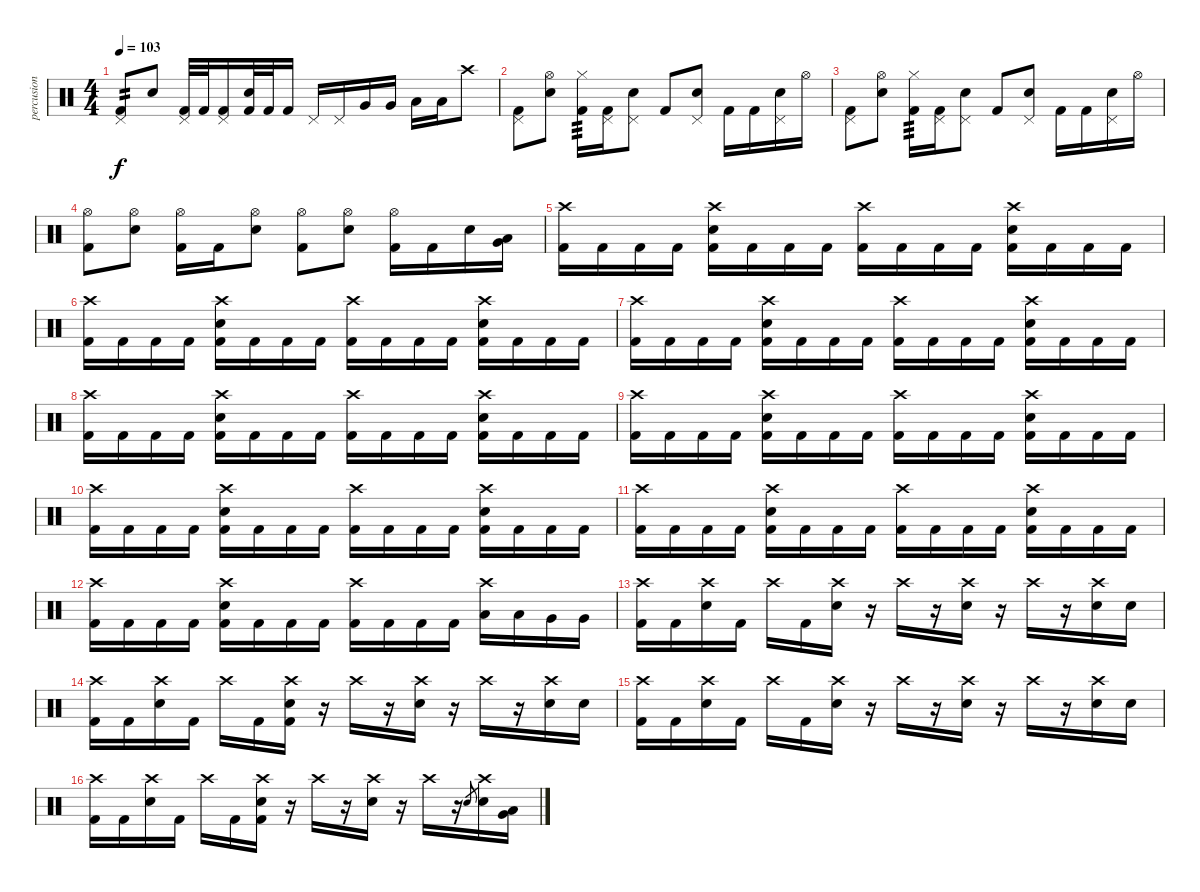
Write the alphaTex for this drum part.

\track ("percusion" "percusion") {instrument percussion}
\staff {score}
\articulation defaults
\ts (4 4)
\tempo 103
\clef neutral
\ks c
("Pedal Hi-Hat (hit)" "Kick (hit) 2").8{tp 2 dy f} "Electric Snare (hit)".8 ("Pedal Hi-Hat (hit)" "Kick (hit) 2").32 "Kick (hit) 2".32 ("Pedal Hi-Hat (hit)" "Kick (hit) 2").16 ("Electric Snare (hit)" "Kick (hit) 2").32 "Kick (hit) 2".32 "Kick (hit) 2".16 "Pedal Hi-Hat (hit)".16 "Pedal Hi-Hat (hit)".16 "Very Low Tom (hit)".16 "Very Low Tom (hit)".16 "Low Tom (hit)".16 "Low Tom (hit)".16 "Crash high (hit)".8 |
("Pedal Hi-Hat (hit)" "Kick (hit) 2").8 ("Hi-Hat (open)" "Electric Snare (hit)").8 ("Hi-Hat (closed)" "Kick (hit) 2").16{tp 3} ("Pedal Hi-Hat (hit)" "Kick (hit) 2").16 ("Pedal Hi-Hat (hit)" "Electric Snare (hit)").8 "Kick (hit) 2".8 ("Pedal Hi-Hat (hit)" "Electric Snare (hit)").8 "Kick (hit) 2".16 "Kick (hit) 2".16 ("Pedal Hi-Hat (hit)" "Electric Snare (hit)").16 "Hi-Hat (open)".16 |
("Pedal Hi-Hat (hit)" "Kick (hit) 2").8 ("Hi-Hat (open)" "Electric Snare (hit)").8 ("Hi-Hat (closed)" "Kick (hit) 2").16{tp 3} ("Pedal Hi-Hat (hit)" "Kick (hit) 2").16 ("Pedal Hi-Hat (hit)" "Electric Snare (hit)").8 "Kick (hit) 2".8 ("Pedal Hi-Hat (hit)" "Electric Snare (hit)").8 "Kick (hit) 2".16 "Kick (hit) 2".16 ("Pedal Hi-Hat (hit)" "Electric Snare (hit)").16 "Hi-Hat (open)".16 |
("Hi-Hat (open)" "Kick (hit) 2").8 ("Hi-Hat (open)" "Electric Snare (hit)").8 ("Hi-Hat (open)" "Kick (hit) 2").16 "Kick (hit) 2".16 ("Hi-Hat (open)" "Electric Snare (hit)").8 ("Hi-Hat (open)" "Kick (hit) 2").8 ("Hi-Hat (open)" "Electric Snare (hit)").8 ("Hi-Hat (open)" "Kick (hit) 2").16 "Kick (hit) 2".16 "Electric Snare (hit)".16 ("Very Low Tom (hit)" "Low Floor Tom (hit)").16 |
("Crash high (hit)" "Kick (hit) 2").16 "Kick (hit) 2".16 "Kick (hit) 2".16 "Kick (hit) 2".16 ("Crash high (hit)" "Electric Snare (hit)" "Kick (hit) 2").16 "Kick (hit) 2".16 "Kick (hit) 2".16 "Kick (hit) 2".16 ("Crash high (hit)" "Kick (hit) 2").16 "Kick (hit) 2".16 "Kick (hit) 2".16 "Kick (hit) 2".16 ("Crash high (hit)" "Electric Snare (hit)" "Kick (hit) 2").16 "Kick (hit) 2".16 "Kick (hit) 2".16 "Kick (hit) 2".16 |
("Crash high (hit)" "Kick (hit) 2").16 "Kick (hit) 2".16 "Kick (hit) 2".16 "Kick (hit) 2".16 ("Crash high (hit)" "Electric Snare (hit)" "Kick (hit) 2").16 "Kick (hit) 2".16 "Kick (hit) 2".16 "Kick (hit) 2".16 ("Crash high (hit)" "Kick (hit) 2").16 "Kick (hit) 2".16 "Kick (hit) 2".16 "Kick (hit) 2".16 ("Crash high (hit)" "Electric Snare (hit)" "Kick (hit) 2").16 "Kick (hit) 2".16 "Kick (hit) 2".16 "Kick (hit) 2".16 |
("Crash high (hit)" "Kick (hit) 2").16 "Kick (hit) 2".16 "Kick (hit) 2".16 "Kick (hit) 2".16 ("Crash high (hit)" "Electric Snare (hit)" "Kick (hit) 2").16 "Kick (hit) 2".16 "Kick (hit) 2".16 "Kick (hit) 2".16 ("Crash high (hit)" "Kick (hit) 2").16 "Kick (hit) 2".16 "Kick (hit) 2".16 "Kick (hit) 2".16 ("Crash high (hit)" "Electric Snare (hit)" "Kick (hit) 2").16 "Kick (hit) 2".16 "Kick (hit) 2".16 "Kick (hit) 2".16 |
("Crash high (hit)" "Kick (hit) 2").16 "Kick (hit) 2".16 "Kick (hit) 2".16 "Kick (hit) 2".16 ("Crash high (hit)" "Electric Snare (hit)" "Kick (hit) 2").16 "Kick (hit) 2".16 "Kick (hit) 2".16 "Kick (hit) 2".16 ("Crash high (hit)" "Kick (hit) 2").16 "Kick (hit) 2".16 "Kick (hit) 2".16 "Kick (hit) 2".16 ("Crash high (hit)" "Electric Snare (hit)" "Kick (hit) 2").16 "Kick (hit) 2".16 "Kick (hit) 2".16 "Kick (hit) 2".16 |
("Crash high (hit)" "Kick (hit) 2").16 "Kick (hit) 2".16 "Kick (hit) 2".16 "Kick (hit) 2".16 ("Crash high (hit)" "Electric Snare (hit)" "Kick (hit) 2").16 "Kick (hit) 2".16 "Kick (hit) 2".16 "Kick (hit) 2".16 ("Crash high (hit)" "Kick (hit) 2").16 "Kick (hit) 2".16 "Kick (hit) 2".16 "Kick (hit) 2".16 ("Crash high (hit)" "Electric Snare (hit)" "Kick (hit) 2").16 "Kick (hit) 2".16 "Kick (hit) 2".16 "Kick (hit) 2".16 |
("Crash high (hit)" "Kick (hit) 2").16 "Kick (hit) 2".16 "Kick (hit) 2".16 "Kick (hit) 2".16 ("Crash high (hit)" "Electric Snare (hit)" "Kick (hit) 2").16 "Kick (hit) 2".16 "Kick (hit) 2".16 "Kick (hit) 2".16 ("Crash high (hit)" "Kick (hit) 2").16 "Kick (hit) 2".16 "Kick (hit) 2".16 "Kick (hit) 2".16 ("Crash high (hit)" "Electric Snare (hit)" "Kick (hit) 2").16 "Kick (hit) 2".16 "Kick (hit) 2".16 "Kick (hit) 2".16 |
("Crash high (hit)" "Kick (hit) 2").16 "Kick (hit) 2".16 "Kick (hit) 2".16 "Kick (hit) 2".16 ("Crash high (hit)" "Electric Snare (hit)" "Kick (hit) 2").16 "Kick (hit) 2".16 "Kick (hit) 2".16 "Kick (hit) 2".16 ("Crash high (hit)" "Kick (hit) 2").16 "Kick (hit) 2".16 "Kick (hit) 2".16 "Kick (hit) 2".16 ("Crash high (hit)" "Electric Snare (hit)" "Kick (hit) 2").16 "Kick (hit) 2".16 "Kick (hit) 2".16 "Kick (hit) 2".16 |
("Crash high (hit)" "Kick (hit) 2").16 "Kick (hit) 2".16 "Kick (hit) 2".16 "Kick (hit) 2".16 ("Crash high (hit)" "Electric Snare (hit)" "Kick (hit) 2").16 "Kick (hit) 2".16 "Kick (hit) 2".16 "Kick (hit) 2".16 ("Crash high (hit)" "Kick (hit) 2").16 "Kick (hit) 2".16 "Kick (hit) 2".16 "Kick (hit) 2".16 ("Crash high (hit)" "Low Tom (hit)").16 "Low Tom (hit)".16 "Very Low Tom (hit)".16 "Very Low Tom (hit)".16 |
("Crash high (hit)" "Kick (hit) 2").16 "Kick (hit) 2".16 ("Crash high (hit)" "Electric Snare (hit)").16 "Kick (hit) 2".16 "Crash high (hit)".16 "Kick (hit) 2".16 ("Crash high (hit)" "Electric Snare (hit)").16 r.16 "Crash high (hit)".16 r.16 ("Crash high (hit)" "Electric Snare (hit)").16 r.16 "Crash high (hit)".16 r.16 ("Crash high (hit)" "Electric Snare (hit)").16 "Snare (hit)".16 |
("Crash high (hit)" "Kick (hit) 2").16 "Kick (hit) 2".16 ("Crash high (hit)" "Electric Snare (hit)").16 "Kick (hit) 2".16 "Crash high (hit)".16 "Kick (hit) 2".16 ("Crash high (hit)" "Electric Snare (hit)" "Kick (hit) 2").16 r.16 "Crash high (hit)".16 r.16 ("Crash high (hit)" "Electric Snare (hit)").16 r.16 "Crash high (hit)".16 r.16 ("Crash high (hit)" "Electric Snare (hit)").16 "Snare (hit)".16 |
("Crash high (hit)" "Kick (hit) 2").16 "Kick (hit) 2".16 ("Crash high (hit)" "Electric Snare (hit)").16 "Kick (hit) 2".16 "Crash high (hit)".16 "Kick (hit) 2".16 ("Crash high (hit)" "Electric Snare (hit)").16 r.16 "Crash high (hit)".16 r.16 ("Crash high (hit)" "Electric Snare (hit)").16 r.16 "Crash high (hit)".16 r.16 ("Crash high (hit)" "Electric Snare (hit)").16 "Snare (hit)".16 |
("Crash high (hit)" "Kick (hit) 2").16 "Kick (hit) 2".16 ("Crash high (hit)" "Electric Snare (hit)").16 "Kick (hit) 2".16 "Crash high (hit)".16 "Kick (hit) 2".16 ("Crash high (hit)" "Electric Snare (hit)" "Kick (hit) 2").16 r.16 "Crash high (hit)".16 r.16 ("Crash high (hit)" "Electric Snare (hit)").16 r.16 "Crash high (hit)".16 r.16 "Electric Snare (hit)".8{gr} ("Crash high (hit)" "Electric Snare (hit)").16 ("Very Low Tom (hit)" "Low Floor Tom (hit)").16
